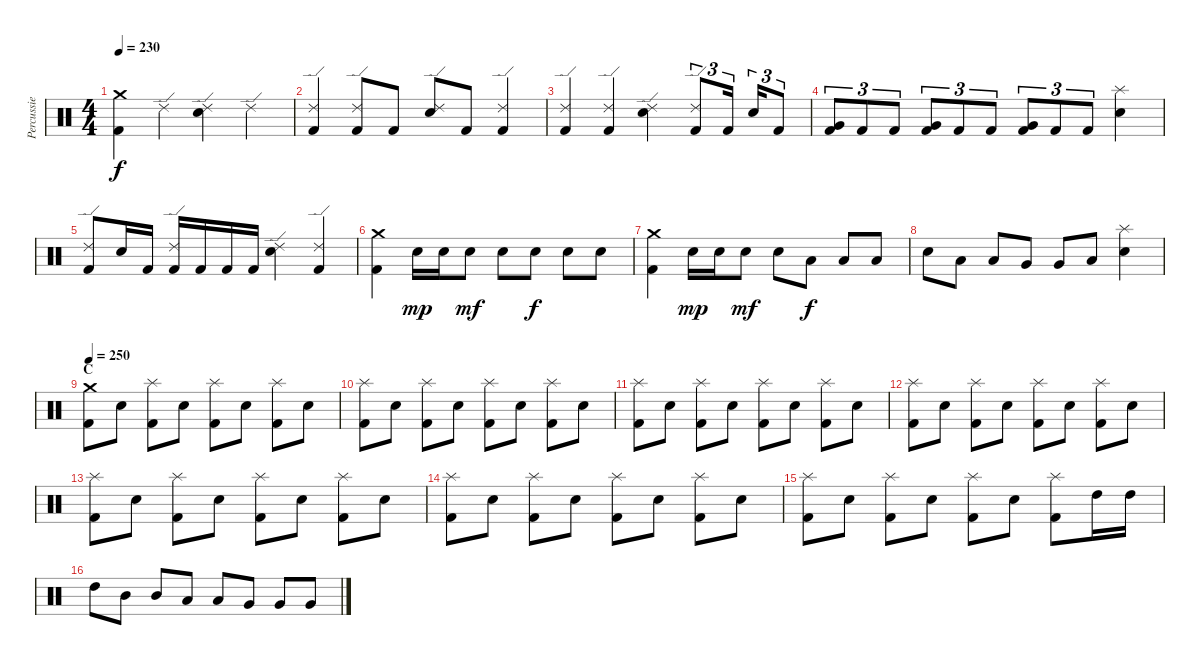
\track ("Percussie" "Percussie") {instrument percussion}
\staff {score}
\articulation defaults
\ts (4 4)
\tempo 230
\clef neutral
\ks c
("Crash medium (hit)" "Kick (hit) 2").4{dy f} "Ride (edge) 2".4 ("Ride (edge) 2" "Electric Snare (hit)").4 "Ride (edge) 2".4 |
("Ride (edge) 2" "Kick (hit) 2").4 ("Ride (edge) 2" "Kick (hit) 2").8 "Kick (hit) 2".8 ("Ride (edge) 2" "Electric Snare (hit)").8 "Kick (hit) 2".8 ("Ride (edge) 2" "Kick (hit) 2").4 |
("Ride (edge) 2" "Kick (hit) 2").4 ("Ride (edge) 2" "Kick (hit) 2").4 ("Ride (edge) 2" "Electric Snare (hit)").4 ("Ride (edge) 2" "Kick (hit) 2").8{tu (3 2)} "Kick (hit) 2".16{tu (3 2)} "Electric Snare (hit)".16{tu (3 2)} "Kick (hit) 2".8{tu (3 2)} |
("Very Low Tom (hit)" "Kick (hit) 2").8{tu (3 2)} "Kick (hit) 2".8{tu (3 2)} "Kick (hit) 2".8{tu (3 2)} ("Very Low Tom (hit)" "Kick (hit) 2").8{tu (3 2)} "Kick (hit) 2".8{tu (3 2)} "Kick (hit) 2".8{tu (3 2)} ("Very Low Tom (hit)" "Kick (hit) 2").8{tu (3 2)} "Kick (hit) 2".8{tu (3 2)} "Kick (hit) 2".8{tu (3 2)} ("Splash (hit)" "Electric Snare (hit)").4 |
("Ride (edge) 2" "Kick (hit) 2").8 "Electric Snare (hit)".16 "Kick (hit) 2".16 ("Ride (edge) 2" "Kick (hit) 2").16 "Kick (hit) 2".16 "Kick (hit) 2".16 "Kick (hit) 2".16 ("Ride (edge) 2" "Electric Snare (hit)").4 ("Ride (edge) 2" "Kick (hit) 2").4 |
("Crash medium (hit)" "Kick (hit) 2").4 "Electric Snare (hit)".16{dy mp} "Electric Snare (hit)".16 "Electric Snare (hit)".8{dy mf} "Electric Snare (hit)".8 "Electric Snare (hit)".8{dy f} "Electric Snare (hit)".8 "Electric Snare (hit)".8 |
("Crash medium (hit)" "Kick (hit) 2").4 "Electric Snare (hit)".16{dy mp} "Electric Snare (hit)".16 "Electric Snare (hit)".8{dy mf} "Electric Snare (hit)".8 "Low Tom (hit)".8{dy f} "Low Tom (hit)".8 "Low Tom (hit)".8 |
"Electric Snare (hit)".8 "Low Tom (hit)".8 "Low Tom (hit)".8 "Very Low Tom (hit)".8 "Very Low Tom (hit)".8 "Low Floor Tom (hit)".8 ("Splash (hit)" "Electric Snare (hit)").4 |
\section ("" "C")
\tempo 250
("Crash medium (hit)" "Kick (hit) 2").8 "Electric Snare (hit)".8 ("Splash (hit)" "Kick (hit) 2").8 "Electric Snare (hit)".8 ("Splash (hit)" "Kick (hit) 2").8 "Electric Snare (hit)".8 ("Splash (hit)" "Kick (hit) 2").8 "Electric Snare (hit)".8 |
("Splash (hit)" "Kick (hit) 2").8 "Electric Snare (hit)".8 ("Splash (hit)" "Kick (hit) 2").8 "Electric Snare (hit)".8 ("Splash (hit)" "Kick (hit) 2").8 "Electric Snare (hit)".8 ("Splash (hit)" "Kick (hit) 2").8 "Electric Snare (hit)".8 |
("Splash (hit)" "Kick (hit) 2").8 "Electric Snare (hit)".8 ("Splash (hit)" "Kick (hit) 2").8 "Electric Snare (hit)".8 ("Splash (hit)" "Kick (hit) 2").8 "Electric Snare (hit)".8 ("Splash (hit)" "Kick (hit) 2").8 "Electric Snare (hit)".8 |
("Splash (hit)" "Kick (hit) 2").8 "Electric Snare (hit)".8 ("Splash (hit)" "Kick (hit) 2").8 "Electric Snare (hit)".8 ("Splash (hit)" "Kick (hit) 2").8 "Electric Snare (hit)".8 ("Splash (hit)" "Kick (hit) 2").8 "Electric Snare (hit)".8 |
("Splash (hit)" "Kick (hit) 2").8 "Electric Snare (hit)".8 ("Splash (hit)" "Kick (hit) 2").8 "Electric Snare (hit)".8 ("Splash (hit)" "Kick (hit) 2").8 "Electric Snare (hit)".8 ("Splash (hit)" "Kick (hit) 2").8 "Electric Snare (hit)".8 |
("Splash (hit)" "Kick (hit) 2").8 "Electric Snare (hit)".8 ("Splash (hit)" "Kick (hit) 2").8 "Electric Snare (hit)".8 ("Splash (hit)" "Kick (hit) 2").8 "Electric Snare (hit)".8 ("Splash (hit)" "Kick (hit) 2").8 "Electric Snare (hit)".8 |
("Splash (hit)" "Kick (hit) 2").8 "Electric Snare (hit)".8 ("Splash (hit)" "Kick (hit) 2").8 "Electric Snare (hit)".8 ("Splash (hit)" "Kick (hit) 2").8 "Electric Snare (hit)".8 ("Splash (hit)" "Kick (hit) 2").8 "High Tom (hit)".16 "High Tom (hit)".16 |
"High Tom (hit)".8 "Mid Tom (hit)".8 "Mid Tom (hit)".8 "Low Tom (hit)".8 "Low Tom (hit)".8 "Very Low Tom (hit)".8 "Very Low Tom (hit)".8 "Very Low Tom (hit)".8
